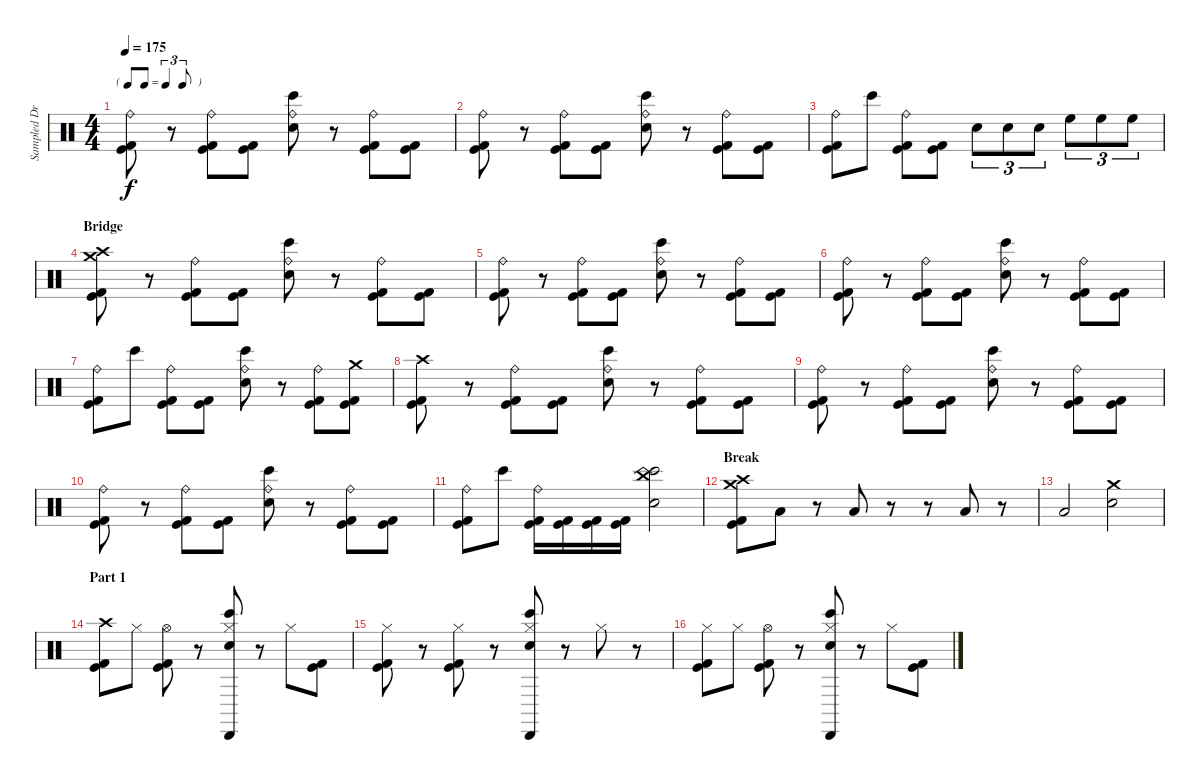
\track ("Sampled Drums" "Sampled Dr") {instrument percussion}
\staff {score}
\articulation defaults
\ts (4 4)
\tf triplet8th
\tempo 175
\clef neutral
\ks c
("Ride (bell)" "Kick (hit)" "Kick (hit) 2").8{dy f} r.8 ("Ride (bell)" "Kick (hit)" "Kick (hit) 2").8 ("Kick (hit)" "Kick (hit) 2").8 ("Ride (bell)" "Bongo High (hit)" "Snare (hit) 2").8 r.8 ("Ride (bell)" "Kick (hit)" "Kick (hit) 2").8 ("Kick (hit)" "Kick (hit) 2").8 |
("Ride (bell)" "Kick (hit)" "Kick (hit) 2").8 r.8 ("Ride (bell)" "Kick (hit)" "Kick (hit) 2").8 ("Kick (hit)" "Kick (hit) 2").8 ("Ride (bell)" "Bongo High (hit)" "Snare (hit) 2").8 r.8 ("Ride (bell)" "Kick (hit)" "Kick (hit) 2").8 ("Kick (hit)" "Kick (hit) 2").8 |
("Ride (bell)" "Kick (hit)" "Kick (hit) 2").8 "Bongo High (hit)".8 ("Ride (bell)" "Kick (hit)" "Kick (hit) 2").8 ("Kick (hit)" "Kick (hit) 2").8 "Electric Snare (hit)".8{tu (3 2)} "Electric Snare (hit)".8{tu (3 2)} "Electric Snare (hit)".8{tu (3 2)} "High Floor Tom (hit)".8{tu (3 2)} "High Floor Tom (hit)".8{tu (3 2)} "High Floor Tom (hit)".8{tu (3 2)} |
\section ("" "Bridge")
("Crash medium (hit)" "Crash high (hit)" "Kick (hit)" "Kick (hit) 2").8 r.8 ("Ride (bell)" "Kick (hit)" "Kick (hit) 2").8 ("Kick (hit)" "Kick (hit) 2").8 ("Ride (bell)" "Bongo High (hit)" "Snare (hit) 2").8 r.8 ("Ride (bell)" "Kick (hit)" "Kick (hit) 2").8 ("Kick (hit)" "Kick (hit) 2").8 |
("Ride (bell)" "Kick (hit)" "Kick (hit) 2").8 r.8 ("Ride (bell)" "Kick (hit)" "Kick (hit) 2").8 ("Kick (hit)" "Kick (hit) 2").8 ("Ride (bell)" "Bongo High (hit)" "Snare (hit) 2").8 r.8 ("Ride (bell)" "Kick (hit)" "Kick (hit) 2").8 ("Kick (hit)" "Kick (hit) 2").8 |
("Ride (bell)" "Kick (hit)" "Kick (hit) 2").8 r.8 ("Ride (bell)" "Kick (hit)" "Kick (hit) 2").8 ("Kick (hit)" "Kick (hit) 2").8 ("Ride (bell)" "Bongo High (hit)" "Snare (hit) 2").8 r.8 ("Ride (bell)" "Kick (hit)" "Kick (hit) 2").8 ("Kick (hit)" "Kick (hit) 2").8 |
("Ride (bell)" "Kick (hit)" "Kick (hit) 2").8 "Bongo High (hit)".8 ("Ride (bell)" "Kick (hit)" "Kick (hit) 2").8 ("Kick (hit)" "Kick (hit) 2").8 ("Ride (bell)" "Bongo High (hit)" "Snare (hit) 2").8 r.8 ("Ride (bell)" "Kick (hit)" "Kick (hit) 2").8 ("Crash medium (hit)" "Kick (hit)" "Kick (hit) 2").8 |
("Crash high (hit)" "Kick (hit)" "Kick (hit) 2").8 r.8 ("Ride (bell)" "Kick (hit)" "Kick (hit) 2").8 ("Kick (hit)" "Kick (hit) 2").8 ("Ride (bell)" "Bongo High (hit)" "Snare (hit) 2").8 r.8 ("Ride (bell)" "Kick (hit)" "Kick (hit) 2").8 ("Kick (hit)" "Kick (hit) 2").8 |
("Ride (bell)" "Kick (hit)" "Kick (hit) 2").8 r.8 ("Ride (bell)" "Kick (hit)" "Kick (hit) 2").8 ("Kick (hit)" "Kick (hit) 2").8 ("Ride (bell)" "Bongo High (hit)" "Snare (hit) 2").8 r.8 ("Ride (bell)" "Kick (hit)" "Kick (hit) 2").8 ("Kick (hit)" "Kick (hit) 2").8 |
("Ride (bell)" "Kick (hit)" "Kick (hit) 2").8 r.8 ("Ride (bell)" "Kick (hit)" "Kick (hit) 2").8 ("Kick (hit)" "Kick (hit) 2").8 ("Ride (bell)" "Bongo High (hit)" "Snare (hit) 2").8 r.8 ("Ride (bell)" "Kick (hit)" "Kick (hit) 2").8 ("Kick (hit)" "Kick (hit) 2").8 |
("Ride (bell)" "Kick (hit)" "Kick (hit) 2").8 "Bongo High (hit)".8 ("Ride (bell)" "Kick (hit)" "Kick (hit) 2").16 ("Kick (hit)" "Kick (hit) 2").16 ("Kick (hit)" "Kick (hit) 2").16 ("Kick (hit)" "Kick (hit) 2").16 ("China (hit)" "Bongo High (hit)" "Snare (hit) 2").2 |
\section ("" "Break")
("Crash high (hit)" "Crash medium (hit)" "Kick (hit)" "Kick (hit) 2").8 "Low Floor Tom (hit)".8 r.8 "Low Floor Tom (hit)".8 r.8 r.8 "Low Floor Tom (hit)".8 r.8 |
"Low Floor Tom (hit)".2 ("Crash medium (hit)" "Electric Snare (hit)").2 |
\section ("" "Part 1")
("Crash high (hit)" "Kick (hit) 2" "Kick (hit)").8 "Hi-Hat (closed)".8 ("Hi-Hat (open)" "Kick (hit) 2" "Kick (hit)").8 r.8 ("Hi-Hat (closed)" "Bongo High (hit)" "Cabasa (hit)" "Snare (hit) 2").8 r.8 "Hi-Hat (closed)".8 ("Kick (hit) 2" "Kick (hit)").8 |
("Hi-Hat (closed)" "Kick (hit) 2" "Kick (hit)").8 r.8 ("Hi-Hat (closed)" "Kick (hit) 2" "Kick (hit)").8 r.8 ("Hi-Hat (closed)" "Bongo High (hit)" "Cabasa (hit)" "Snare (hit) 2").8 r.8 "Hi-Hat (closed)".8 r.8 |
("Hi-Hat (closed)" "Kick (hit) 2" "Kick (hit)").8 "Hi-Hat (closed)".8 ("Hi-Hat (open)" "Kick (hit) 2" "Kick (hit)").8 r.8 ("Hi-Hat (closed)" "Bongo High (hit)" "Cabasa (hit)" "Snare (hit) 2").8 r.8 "Hi-Hat (closed)".8 ("Kick (hit) 2" "Kick (hit)").8
